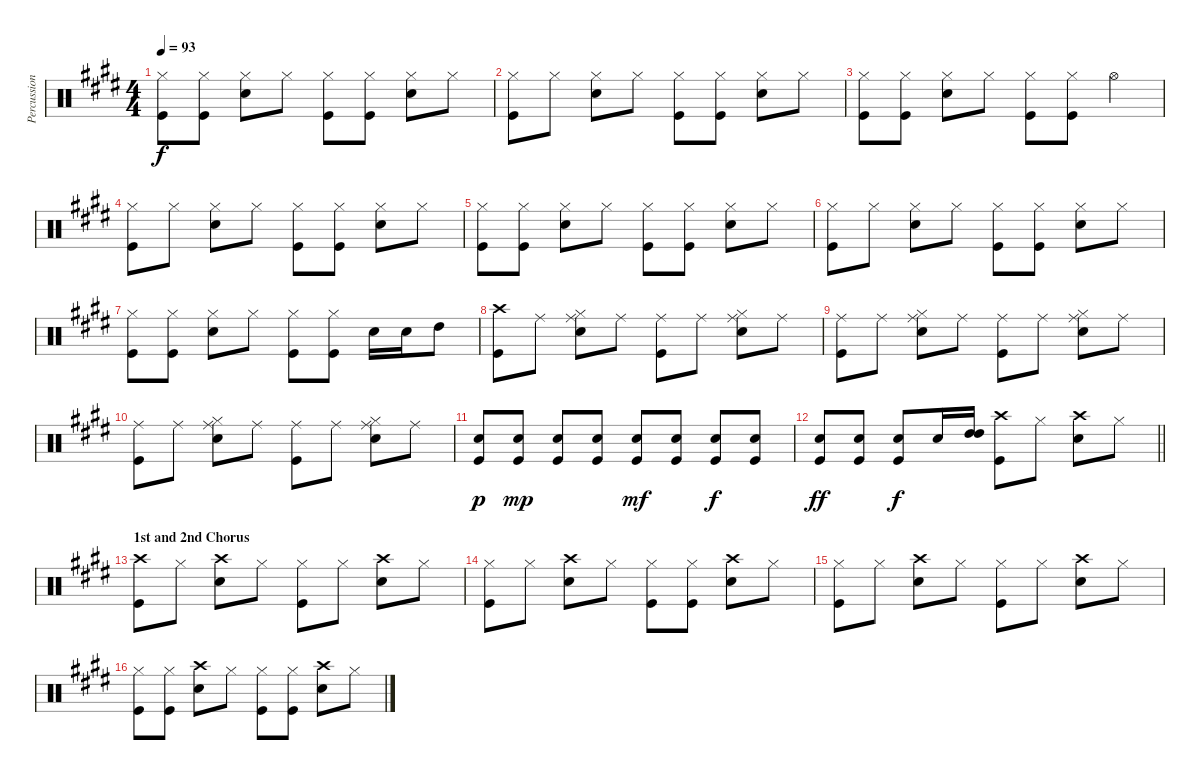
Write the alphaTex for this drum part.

\track ("Percussion" "Percussion") {instrument percussion}
\staff {score}
\articulation defaults
\ts (4 4)
\tempo 93
\clef neutral
\ks c#minor
("Hi-Hat (closed)" "Kick (hit)").8{dy f} ("Hi-Hat (closed)" "Kick (hit)").8 ("Hi-Hat (closed)" "Snare (hit) 2").8 "Hi-Hat (closed)".8 ("Hi-Hat (closed)" "Kick (hit)").8 ("Hi-Hat (closed)" "Kick (hit)").8 ("Hi-Hat (closed)" "Snare (hit) 2").8 "Hi-Hat (closed)".8 |
("Hi-Hat (closed)" "Kick (hit)").8 "Hi-Hat (closed)".8 ("Hi-Hat (closed)" "Snare (hit) 2").8 "Hi-Hat (closed)".8 ("Hi-Hat (closed)" "Kick (hit)").8 ("Hi-Hat (closed)" "Kick (hit)").8 ("Hi-Hat (closed)" "Snare (hit) 2").8 "Hi-Hat (closed)".8 |
("Hi-Hat (closed)" "Kick (hit)").8 ("Hi-Hat (closed)" "Kick (hit)").8 ("Hi-Hat (closed)" "Snare (hit) 2").8 "Hi-Hat (closed)".8 ("Hi-Hat (closed)" "Kick (hit)").8 ("Hi-Hat (closed)" "Kick (hit)").8 "Hi-Hat (open)".4 |
("Hi-Hat (closed)" "Kick (hit)").8 "Hi-Hat (closed)".8 ("Hi-Hat (closed)" "Snare (hit) 2").8 "Hi-Hat (closed)".8 ("Hi-Hat (closed)" "Kick (hit)").8 ("Hi-Hat (closed)" "Kick (hit)").8 ("Hi-Hat (closed)" "Snare (hit) 2").8 "Hi-Hat (closed)".8 |
("Hi-Hat (closed)" "Kick (hit)").8 ("Hi-Hat (closed)" "Kick (hit)").8 ("Hi-Hat (closed)" "Snare (hit) 2").8 "Hi-Hat (closed)".8 ("Hi-Hat (closed)" "Kick (hit)").8 ("Hi-Hat (closed)" "Kick (hit)").8 ("Hi-Hat (closed)" "Snare (hit) 2").8 "Hi-Hat (closed)".8 |
("Hi-Hat (closed)" "Kick (hit)").8 "Hi-Hat (closed)".8 ("Hi-Hat (closed)" "Snare (hit) 2").8 "Hi-Hat (closed)".8 ("Hi-Hat (closed)" "Kick (hit)").8 ("Hi-Hat (closed)" "Kick (hit)").8 ("Hi-Hat (closed)" "Snare (hit) 2").8 "Hi-Hat (closed)".8 |
("Hi-Hat (closed)" "Kick (hit)").8 ("Hi-Hat (closed)" "Kick (hit)").8 ("Hi-Hat (closed)" "Snare (hit) 2").8 "Hi-Hat (closed)".8 ("Hi-Hat (closed)" "Kick (hit)").8 ("Hi-Hat (closed)" "Kick (hit)").8 "Snare (hit) 2".16 "Snare (hit) 2".16 "High Tom (hit)".8 |
("Crash high (hit)" "Kick (hit)").8 "Ride (middle)".8 ("Ride (middle)" "Snare (hit) 2" "Hi-Hat (closed)").8 "Ride (middle)".8 ("Ride (middle)" "Kick (hit)").8 "Ride (middle)".8 ("Ride (middle)" "Snare (hit) 2" "Hi-Hat (closed)").8 "Ride (middle)".8 |
("Ride (middle)" "Kick (hit)").8 "Ride (middle)".8 ("Ride (middle)" "Snare (hit) 2" "Hi-Hat (closed)").8 "Ride (middle)".8 ("Ride (middle)" "Kick (hit)").8 "Ride (middle)".8 ("Ride (middle)" "Snare (hit) 2" "Hi-Hat (closed)").8 "Ride (middle)".8 |
("Ride (middle)" "Kick (hit)").8 "Ride (middle)".8 ("Ride (middle)" "Snare (hit) 2" "Hi-Hat (closed)").8 "Ride (middle)".8 ("Ride (middle)" "Kick (hit)").8 "Ride (middle)".8 ("Ride (middle)" "Snare (hit) 2" "Hi-Hat (closed)").8 "Ride (middle)".8 |
("Kick (hit)" "Snare (hit) 2").8{dy p} ("Kick (hit)" "Snare (hit) 2").8{dy mp} ("Kick (hit)" "Snare (hit) 2").8 ("Kick (hit)" "Snare (hit) 2").8 ("Kick (hit)" "Snare (hit) 2").8{dy mf} ("Kick (hit)" "Snare (hit) 2").8 ("Kick (hit)" "Snare (hit) 2").8{dy f} ("Kick (hit)" "Snare (hit) 2").8 |
\barLineRight lightlight
("Kick (hit)" "Snare (hit) 2").8{dy ff} ("Kick (hit)" "Snare (hit) 2").8 ("Kick (hit)" "Snare (hit) 2").8{dy f} "Snare (hit) 2".16 ("High Tom (hit)" "High Tom (hit)").16 ("Crash high (hit)" "Kick (hit)").8 "Hi-Hat (closed)".8 ("Crash high (hit)" "Snare (hit) 2").8 "Hi-Hat (closed)".8 |
\section ("" "1st and 2nd Chorus")
("Crash high (hit)" "Kick (hit)").8 "Hi-Hat (closed)".8 ("Crash high (hit)" "Snare (hit) 2").8 "Hi-Hat (closed)".8 ("Hi-Hat (closed)" "Kick (hit)").8 "Hi-Hat (closed)".8 ("Crash high (hit)" "Snare (hit) 2").8 "Hi-Hat (closed)".8 |
("Hi-Hat (closed)" "Kick (hit)").8 "Hi-Hat (closed)".8 ("Crash high (hit)" "Snare (hit) 2").8 "Hi-Hat (closed)".8 ("Hi-Hat (closed)" "Kick (hit)").8 ("Hi-Hat (closed)" "Kick (hit)").8 ("Crash high (hit)" "Snare (hit) 2").8 "Hi-Hat (closed)".8 |
("Hi-Hat (closed)" "Kick (hit)").8 "Hi-Hat (closed)".8 ("Crash high (hit)" "Snare (hit) 2").8 "Hi-Hat (closed)".8 ("Hi-Hat (closed)" "Kick (hit)").8 "Hi-Hat (closed)".8 ("Crash high (hit)" "Snare (hit) 2").8 "Hi-Hat (closed)".8 |
("Hi-Hat (closed)" "Kick (hit)").8 ("Hi-Hat (closed)" "Kick (hit)").8 ("Crash high (hit)" "Snare (hit) 2").8 "Hi-Hat (closed)".8 ("Hi-Hat (closed)" "Kick (hit)").8 ("Hi-Hat (closed)" "Kick (hit)").8 ("Crash high (hit)" "Snare (hit) 2").8 "Hi-Hat (closed)".8
